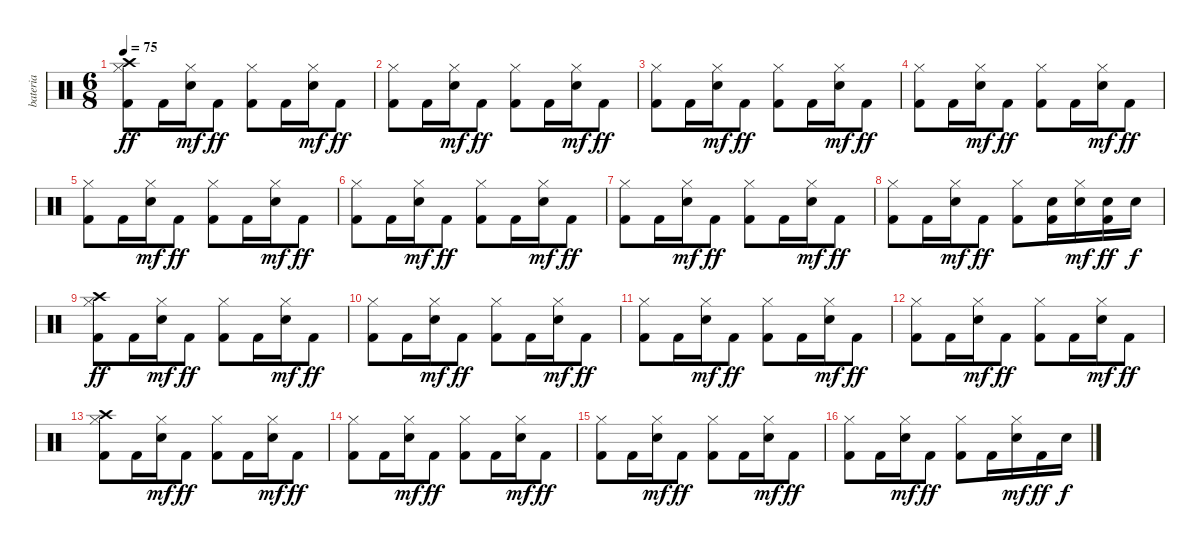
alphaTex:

\track ("bateria" "bateria") {instrument percussion}
\staff {score}
\articulation defaults
\ts (6 8)
\tempo 75
\clef neutral
\ks c
("Crash high (hit)" "Hi-Hat (closed)" "Kick (hit) 2").8{dy ff} "Kick (hit) 2".16 ("Hi-Hat (closed)" "Snare (hit) 2").16{dy mf} "Kick (hit) 2".8{dy ff} ("Hi-Hat (closed)" "Kick (hit) 2").8 "Kick (hit) 2".16 ("Hi-Hat (closed)" "Snare (hit) 2").16{dy mf} "Kick (hit) 2".8{dy ff} |
("Hi-Hat (closed)" "Kick (hit) 2").8 "Kick (hit) 2".16 ("Hi-Hat (closed)" "Snare (hit) 2").16{dy mf} "Kick (hit) 2".8{dy ff} ("Hi-Hat (closed)" "Kick (hit) 2").8 "Kick (hit) 2".16 ("Hi-Hat (closed)" "Snare (hit) 2").16{dy mf} "Kick (hit) 2".8{dy ff} |
("Hi-Hat (closed)" "Kick (hit) 2").8 "Kick (hit) 2".16 ("Hi-Hat (closed)" "Snare (hit) 2").16{dy mf} "Kick (hit) 2".8{dy ff} ("Hi-Hat (closed)" "Kick (hit) 2").8 "Kick (hit) 2".16 ("Hi-Hat (closed)" "Snare (hit) 2").16{dy mf} "Kick (hit) 2".8{dy ff} |
("Hi-Hat (closed)" "Kick (hit) 2").8 "Kick (hit) 2".16 ("Hi-Hat (closed)" "Snare (hit) 2").16{dy mf} "Kick (hit) 2".8{dy ff} ("Hi-Hat (closed)" "Kick (hit) 2").8 "Kick (hit) 2".16 ("Hi-Hat (closed)" "Snare (hit) 2").16{dy mf} "Kick (hit) 2".8{dy ff} |
("Hi-Hat (closed)" "Kick (hit) 2").8 "Kick (hit) 2".16 ("Hi-Hat (closed)" "Snare (hit) 2").16{dy mf} "Kick (hit) 2".8{dy ff} ("Hi-Hat (closed)" "Kick (hit) 2").8 "Kick (hit) 2".16 ("Hi-Hat (closed)" "Snare (hit) 2").16{dy mf} "Kick (hit) 2".8{dy ff} |
("Hi-Hat (closed)" "Kick (hit) 2").8 "Kick (hit) 2".16 ("Hi-Hat (closed)" "Snare (hit) 2").16{dy mf} "Kick (hit) 2".8{dy ff} ("Hi-Hat (closed)" "Kick (hit) 2").8 "Kick (hit) 2".16 ("Hi-Hat (closed)" "Snare (hit) 2").16{dy mf} "Kick (hit) 2".8{dy ff} |
("Hi-Hat (closed)" "Kick (hit) 2").8 "Kick (hit) 2".16 ("Hi-Hat (closed)" "Snare (hit) 2").16{dy mf} "Kick (hit) 2".8{dy ff} ("Hi-Hat (closed)" "Kick (hit) 2").8 "Kick (hit) 2".16 ("Hi-Hat (closed)" "Snare (hit) 2").16{dy mf} "Kick (hit) 2".8{dy ff} |
("Hi-Hat (closed)" "Kick (hit) 2").8 "Kick (hit) 2".16 ("Hi-Hat (closed)" "Snare (hit) 2").16{dy mf} "Kick (hit) 2".8{dy ff} ("Hi-Hat (closed)" "Kick (hit) 2").8 ("Snare (hit) 2" "Kick (hit) 2").16 ("Hi-Hat (closed)" "Snare (hit) 2").16{dy mf} ("Snare (hit) 2" "Kick (hit) 2").16{dy ff} "Snare (hit) 2".16{dy f} |
("Crash high (hit)" "Hi-Hat (closed)" "Kick (hit) 2").8{dy ff} "Kick (hit) 2".16 ("Hi-Hat (closed)" "Snare (hit) 2").16{dy mf} "Kick (hit) 2".8{dy ff} ("Hi-Hat (closed)" "Kick (hit) 2").8 "Kick (hit) 2".16 ("Hi-Hat (closed)" "Snare (hit) 2").16{dy mf} "Kick (hit) 2".8{dy ff} |
("Hi-Hat (closed)" "Kick (hit) 2").8 "Kick (hit) 2".16 ("Hi-Hat (closed)" "Snare (hit) 2").16{dy mf} "Kick (hit) 2".8{dy ff} ("Hi-Hat (closed)" "Kick (hit) 2").8 "Kick (hit) 2".16 ("Hi-Hat (closed)" "Snare (hit) 2").16{dy mf} "Kick (hit) 2".8{dy ff} |
("Hi-Hat (closed)" "Kick (hit) 2").8 "Kick (hit) 2".16 ("Hi-Hat (closed)" "Snare (hit) 2").16{dy mf} "Kick (hit) 2".8{dy ff} ("Hi-Hat (closed)" "Kick (hit) 2").8 "Kick (hit) 2".16 ("Hi-Hat (closed)" "Snare (hit) 2").16{dy mf} "Kick (hit) 2".8{dy ff} |
("Hi-Hat (closed)" "Kick (hit) 2").8 "Kick (hit) 2".16 ("Hi-Hat (closed)" "Snare (hit) 2").16{dy mf} "Kick (hit) 2".8{dy ff} ("Hi-Hat (closed)" "Kick (hit) 2").8 "Kick (hit) 2".16 ("Hi-Hat (closed)" "Snare (hit) 2").16{dy mf} "Kick (hit) 2".8{dy ff} |
("Crash high (hit)" "Hi-Hat (closed)" "Kick (hit) 2").8 "Kick (hit) 2".16 ("Hi-Hat (closed)" "Snare (hit) 2").16{dy mf} "Kick (hit) 2".8{dy ff} ("Hi-Hat (closed)" "Kick (hit) 2").8 "Kick (hit) 2".16 ("Hi-Hat (closed)" "Snare (hit) 2").16{dy mf} "Kick (hit) 2".8{dy ff} |
("Hi-Hat (closed)" "Kick (hit) 2").8 "Kick (hit) 2".16 ("Hi-Hat (closed)" "Snare (hit) 2").16{dy mf} "Kick (hit) 2".8{dy ff} ("Hi-Hat (closed)" "Kick (hit) 2").8 "Kick (hit) 2".16 ("Hi-Hat (closed)" "Snare (hit) 2").16{dy mf} "Kick (hit) 2".8{dy ff} |
("Hi-Hat (closed)" "Kick (hit) 2").8 "Kick (hit) 2".16 ("Hi-Hat (closed)" "Snare (hit) 2").16{dy mf} "Kick (hit) 2".8{dy ff} ("Hi-Hat (closed)" "Kick (hit) 2").8 "Kick (hit) 2".16 ("Hi-Hat (closed)" "Snare (hit) 2").16{dy mf} "Kick (hit) 2".8{dy ff} |
("Hi-Hat (closed)" "Kick (hit) 2").8 "Kick (hit) 2".16 ("Hi-Hat (closed)" "Snare (hit) 2").16{dy mf} "Kick (hit) 2".8{dy ff} ("Hi-Hat (closed)" "Kick (hit) 2").8 "Kick (hit) 2".16 ("Hi-Hat (closed)" "Snare (hit) 2").16{dy mf} "Kick (hit) 2".16{dy ff} "Snare (hit) 2".16{dy f}
